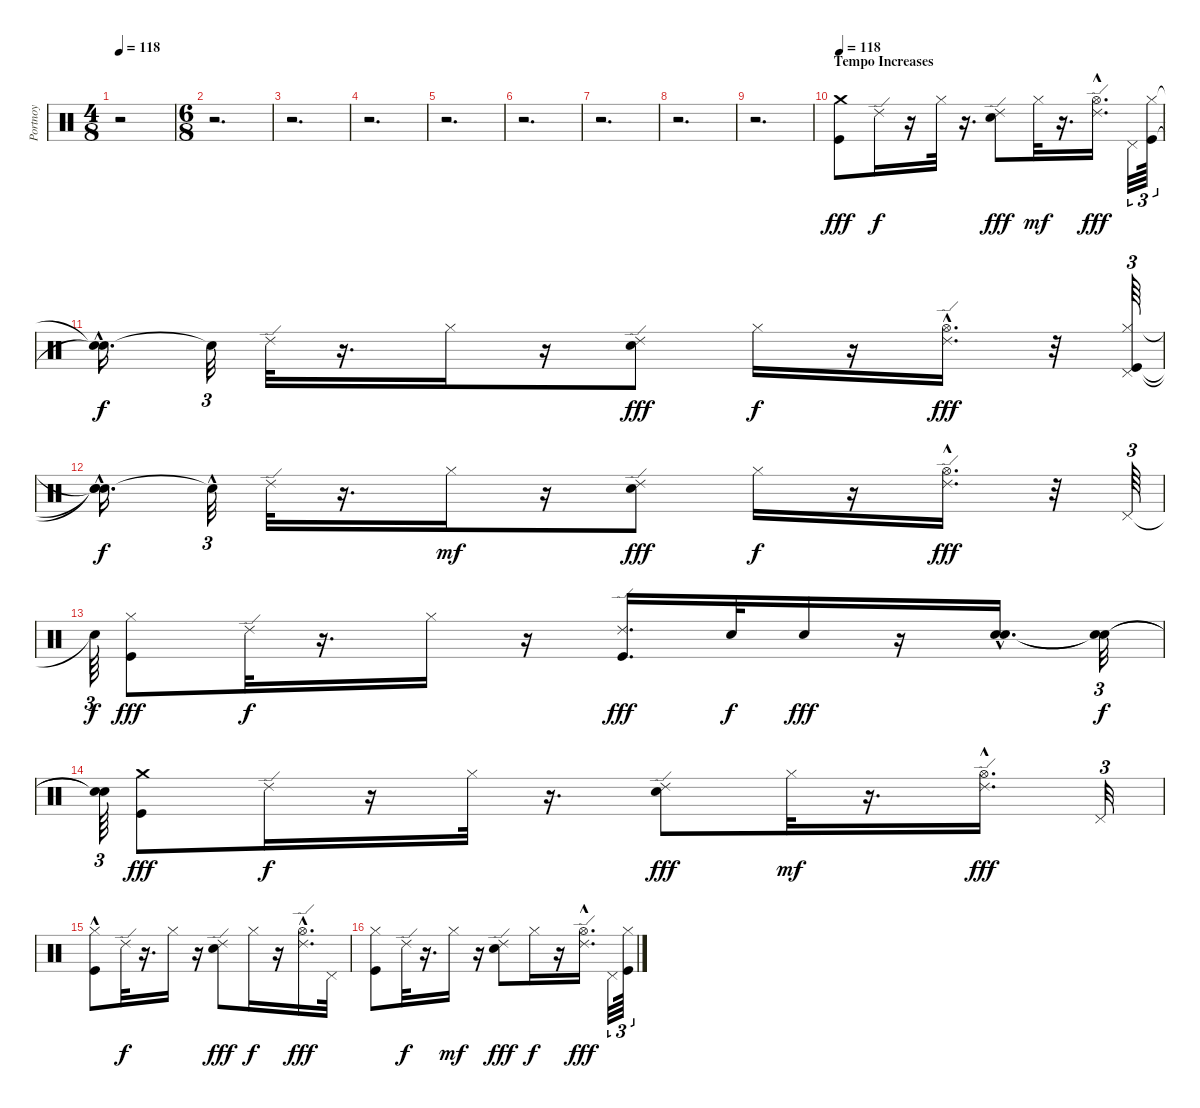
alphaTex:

\track ("Portnoy" "Portnoy") {instrument percussion}
\staff {score}
\articulation defaults
\ts (4 8)
\tempo 118
\clef neutral
\ks c
r.2{dy fff} |
\ts (6 8)
r.2{d} |
r.2{d} |
r.2{d} |
r.2{d} |
r.2{d} |
r.2{d} |
r.2{d} |
r.2{d} |
\section ("" "Tempo Increases")
\tempo 118
("Crash medium (hit)" "Kick (hit)").8 "Ride (edge) 2".16{dy f} r.16 "Hi-Hat (closed)".32 r.16{d} ("Ride (edge) 2" "Snare (hit) 2").8{dy fff} "Hi-Hat (closed)".32{dy mf} r.16{d} ("Ride (edge) 2" "Hi-Hat (open)"{hac}).16{d dy fff} "Pedal Hi-Hat (hit)".32{tu (3 2)} ("Kick (hit)" "Hi-Hat (closed)").64{tu (3 2)} |
("Snare (hit)"{hac t} "Snare (hit)"{hac t}).16{d dy f} "Snare (hit)"{t}.32{tu (3 2)} "Ride (edge) 2".32 r.16{d} "Hi-Hat (closed)".16 r.16 ("Snare (hit) 2" "Ride (edge) 2").8{dy fff} "Hi-Hat (closed)".16{dy f} r.16 ("Hi-Hat (open)"{hac} "Ride (edge) 2").16{d dy fff} r.32 ("Pedal Hi-Hat (hit)" "Kick (hit)" "Hi-Hat (closed)").64{tu (3 2)} |
("Snare (hit)"{t} "Snare (hit)"{hac t} "Snare (hit)"{hac t}).16{d dy f} "Snare (hit)"{hac t}.32{tu (3 2)} "Ride (edge) 2".32 r.16{d} "Hi-Hat (closed)".16{dy mf} r.16 ("Ride (edge) 2" "Snare (hit) 2").8{dy fff} "Hi-Hat (closed)".16{dy f} r.16 ("Ride (edge) 2" "Hi-Hat (open)"{hac}).16{d dy fff} r.32 "Pedal Hi-Hat (hit)".64{tu (3 2)} |
"Snare (hit)"{t}.64{tu (3 2) dy f} ("Kick (hit)" "Hi-Hat (closed)").8{dy fff} "Ride (edge) 2".32{dy f} r.16{d} "Hi-Hat (closed)".16 r.16 ("Kick (hit)" "Ride (edge) 2").16{d dy fff} "Snare (hit) 2".32{dy f} "Snare (hit) 2".16{dy fff} r.16 ("Snare (hit) 2"{hac} "Snare (hit) 2"{hac}).16{d} ("Snare (hit)"{t} "Snare (hit)"{t}).32{tu (3 2) dy f} |
("Snare (hit)"{t} "Snare (hit)"{t}).64{tu (3 2)} ("Crash medium (hit)" "Kick (hit)").8{dy fff} "Ride (edge) 2".16{dy f} r.16 "Hi-Hat (closed)".32 r.16{d} ("Ride (edge) 2" "Snare (hit) 2").8{dy fff} "Hi-Hat (closed)".32{dy mf} r.16{d} ("Ride (edge) 2" "Hi-Hat (open)"{hac}).16{d dy fff} "Pedal Hi-Hat (hit)".32{tu (3 2)} |
("Kick (hit)"{hac} "Hi-Hat (closed)").8 "Ride (edge) 2".32{dy f} r.16{d} "Hi-Hat (closed)".16 r.16 ("Snare (hit) 2" "Ride (edge) 2").8{dy fff} "Hi-Hat (closed)".16{dy f} r.16 ("Hi-Hat (open)"{hac} "Ride (edge) 2").16{d dy fff} "Pedal Hi-Hat (hit)".32 |
("Kick (hit)" "Hi-Hat (closed)").8 "Ride (edge) 2".32{dy f} r.16{d} "Hi-Hat (closed)".16{dy mf} r.16 ("Snare (hit) 2" "Ride (edge) 2").8{dy fff} "Hi-Hat (closed)".16{dy f} r.16 ("Ride (edge) 2" "Hi-Hat (open)"{hac}).16{d dy fff} "Pedal Hi-Hat (hit)".32{tu (3 2)} ("Kick (hit)" "Hi-Hat (closed)").64{tu (3 2)}
